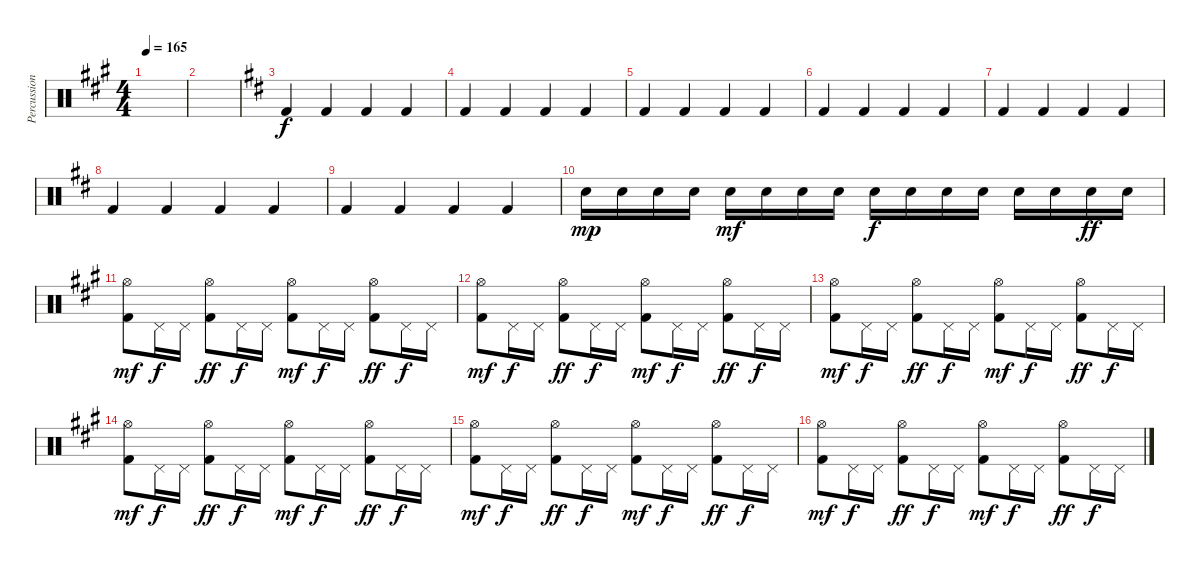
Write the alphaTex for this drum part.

\track ("Percussion" "Percussion") {instrument percussion}
\staff {score}
\articulation defaults
\ts (4 4)
\tempo 165
\clef neutral
\ks a
|
|
\ks d "Kick (hit) 2".4 "Kick (hit) 2".4 "Kick (hit) 2".4 "Kick (hit) 2".4
|
"Kick (hit) 2".4 "Kick (hit) 2".4 "Kick (hit) 2".4 "Kick (hit) 2".4 |
"Kick (hit) 2".4 "Kick (hit) 2".4 "Kick (hit) 2".4 "Kick (hit) 2".4 |
"Kick (hit) 2".4 "Kick (hit) 2".4 "Kick (hit) 2".4 "Kick (hit) 2".4 |
"Kick (hit) 2".4 "Kick (hit) 2".4 "Kick (hit) 2".4 "Kick (hit) 2".4 |
"Kick (hit) 2".4 "Kick (hit) 2".4 "Kick (hit) 2".4 "Kick (hit) 2".4 |
"Kick (hit) 2".4 "Kick (hit) 2".4 "Kick (hit) 2".4 "Kick (hit) 2".4 |
"Electric Snare (hit)".16{dy mp} "Electric Snare (hit)".16 "Electric Snare (hit)".16 "Electric Snare (hit)".16 "Electric Snare (hit)".16{dy mf} "Electric Snare (hit)".16 "Electric Snare (hit)".16 "Electric Snare (hit)".16 "Electric Snare (hit)".16{dy f} "Electric Snare (hit)".16 "Electric Snare (hit)".16 "Electric Snare (hit)".16 "Electric Snare (hit)".16 "Electric Snare (hit)".16 "Electric Snare (hit)".16{dy ff} "Electric Snare (hit)".16 |
\ks a
("Hi-Hat (open)" "Kick (hit) 2").8{dy mf} "Pedal Hi-Hat (hit)".16{dy f} "Pedal Hi-Hat (hit)".16 ("Hi-Hat (open)" "Kick (hit) 2").8{dy ff} "Pedal Hi-Hat (hit)".16{dy f} "Pedal Hi-Hat (hit)".16 ("Hi-Hat (open)" "Kick (hit) 2").8{dy mf} "Pedal Hi-Hat (hit)".16{dy f} "Pedal Hi-Hat (hit)".16 ("Hi-Hat (open)" "Kick (hit) 2").8{dy ff} "Pedal Hi-Hat (hit)".16{dy f} "Pedal Hi-Hat (hit)".16 |
("Hi-Hat (open)" "Kick (hit) 2").8{dy mf} "Pedal Hi-Hat (hit)".16{dy f} "Pedal Hi-Hat (hit)".16 ("Hi-Hat (open)" "Kick (hit) 2").8{dy ff} "Pedal Hi-Hat (hit)".16{dy f} "Pedal Hi-Hat (hit)".16 ("Hi-Hat (open)" "Kick (hit) 2").8{dy mf} "Pedal Hi-Hat (hit)".16{dy f} "Pedal Hi-Hat (hit)".16 ("Hi-Hat (open)" "Kick (hit) 2").8{dy ff} "Pedal Hi-Hat (hit)".16{dy f} "Pedal Hi-Hat (hit)".16 |
("Hi-Hat (open)" "Kick (hit) 2").8{dy mf} "Pedal Hi-Hat (hit)".16{dy f} "Pedal Hi-Hat (hit)".16 ("Hi-Hat (open)" "Kick (hit) 2").8{dy ff} "Pedal Hi-Hat (hit)".16{dy f} "Pedal Hi-Hat (hit)".16 ("Hi-Hat (open)" "Kick (hit) 2").8{dy mf} "Pedal Hi-Hat (hit)".16{dy f} "Pedal Hi-Hat (hit)".16 ("Hi-Hat (open)" "Kick (hit) 2").8{dy ff} "Pedal Hi-Hat (hit)".16{dy f} "Pedal Hi-Hat (hit)".16 |
("Hi-Hat (open)" "Kick (hit) 2").8{dy mf} "Pedal Hi-Hat (hit)".16{dy f} "Pedal Hi-Hat (hit)".16 ("Hi-Hat (open)" "Kick (hit) 2").8{dy ff} "Pedal Hi-Hat (hit)".16{dy f} "Pedal Hi-Hat (hit)".16 ("Hi-Hat (open)" "Kick (hit) 2").8{dy mf} "Pedal Hi-Hat (hit)".16{dy f} "Pedal Hi-Hat (hit)".16 ("Hi-Hat (open)" "Kick (hit) 2").8{dy ff} "Pedal Hi-Hat (hit)".16{dy f} "Pedal Hi-Hat (hit)".16 |
("Hi-Hat (open)" "Kick (hit) 2").8{dy mf} "Pedal Hi-Hat (hit)".16{dy f} "Pedal Hi-Hat (hit)".16 ("Hi-Hat (open)" "Kick (hit) 2").8{dy ff} "Pedal Hi-Hat (hit)".16{dy f} "Pedal Hi-Hat (hit)".16 ("Hi-Hat (open)" "Kick (hit) 2").8{dy mf} "Pedal Hi-Hat (hit)".16{dy f} "Pedal Hi-Hat (hit)".16 ("Hi-Hat (open)" "Kick (hit) 2").8{dy ff} "Pedal Hi-Hat (hit)".16{dy f} "Pedal Hi-Hat (hit)".16 |
("Hi-Hat (open)" "Kick (hit) 2").8{dy mf} "Pedal Hi-Hat (hit)".16{dy f} "Pedal Hi-Hat (hit)".16 ("Hi-Hat (open)" "Kick (hit) 2").8{dy ff} "Pedal Hi-Hat (hit)".16{dy f} "Pedal Hi-Hat (hit)".16 ("Hi-Hat (open)" "Kick (hit) 2").8{dy mf} "Pedal Hi-Hat (hit)".16{dy f} "Pedal Hi-Hat (hit)".16 ("Hi-Hat (open)" "Kick (hit) 2").8{dy ff} "Pedal Hi-Hat (hit)".16{dy f} "Pedal Hi-Hat (hit)".16
